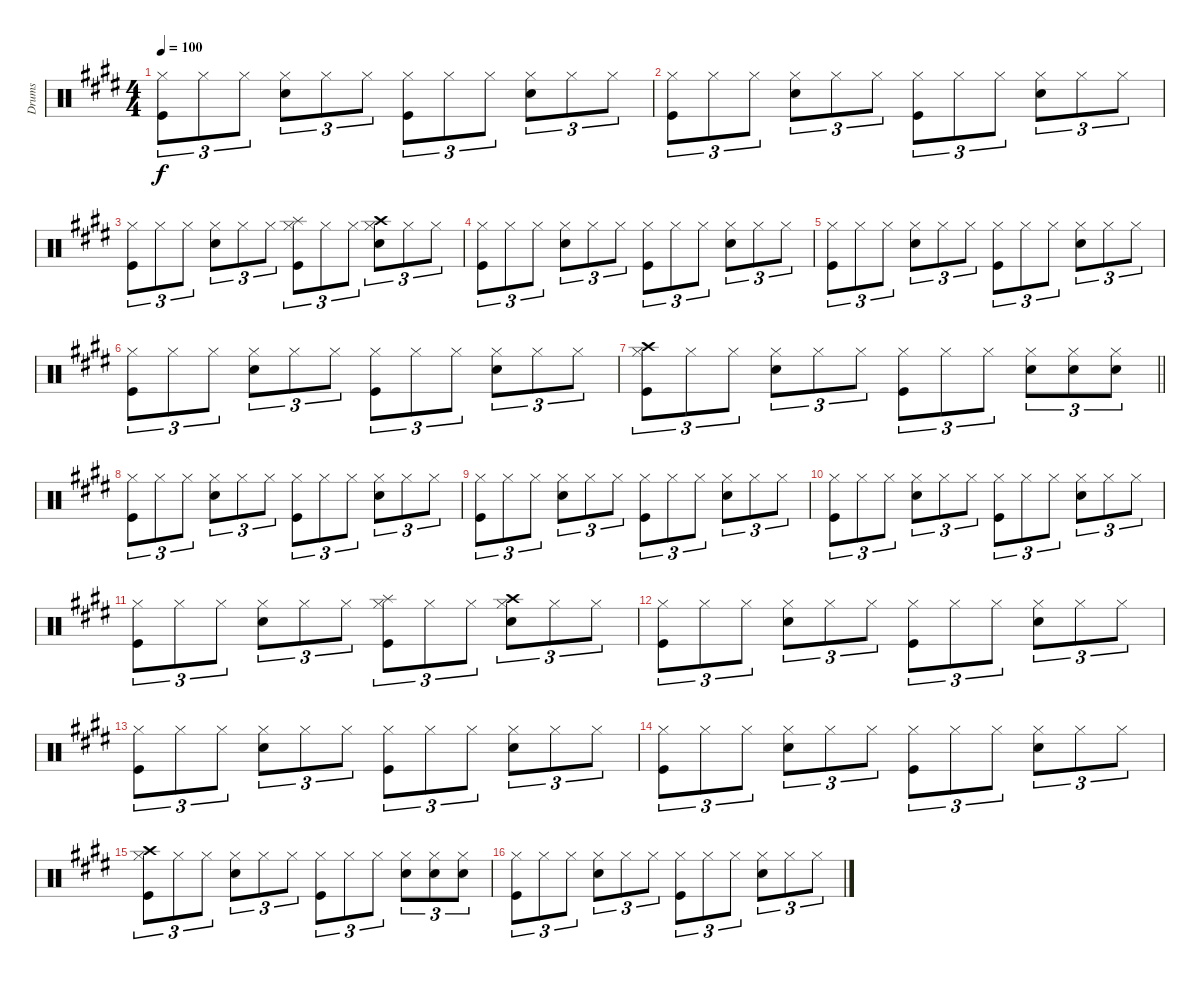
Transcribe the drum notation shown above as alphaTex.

\track ("Drums" "Drums") {instrument percussion}
\staff {score}
\articulation defaults
\ts (4 4)
\tempo 100
\clef neutral
\ks e
("Hi-Hat (closed)" "Kick (hit)").8{tu (3 2) dy f} "Hi-Hat (closed)".8{tu (3 2)} "Hi-Hat (closed)".8{tu (3 2)} ("Hi-Hat (closed)" "Snare (hit) 2").8{tu (3 2)} "Hi-Hat (closed)".8{tu (3 2)} "Hi-Hat (closed)".8{tu (3 2)} ("Hi-Hat (closed)" "Kick (hit)").8{tu (3 2)} "Hi-Hat (closed)".8{tu (3 2)} "Hi-Hat (closed)".8{tu (3 2)} ("Hi-Hat (closed)" "Snare (hit) 2").8{tu (3 2)} "Hi-Hat (closed)".8{tu (3 2)} "Hi-Hat (closed)".8{tu (3 2)} |
\ks c#minor
("Hi-Hat (closed)" "Kick (hit)").8{tu (3 2)} "Hi-Hat (closed)".8{tu (3 2)} "Hi-Hat (closed)".8{tu (3 2)} ("Hi-Hat (closed)" "Snare (hit) 2").8{tu (3 2)} "Hi-Hat (closed)".8{tu (3 2)} "Hi-Hat (closed)".8{tu (3 2)} ("Hi-Hat (closed)" "Kick (hit)").8{tu (3 2)} "Hi-Hat (closed)".8{tu (3 2)} "Hi-Hat (closed)".8{tu (3 2)} ("Hi-Hat (closed)" "Snare (hit) 2").8{tu (3 2)} "Hi-Hat (closed)".8{tu (3 2)} "Hi-Hat (closed)".8{tu (3 2)} |
("Hi-Hat (closed)" "Kick (hit)").8{tu (3 2)} "Hi-Hat (closed)".8{tu (3 2)} "Hi-Hat (closed)".8{tu (3 2)} ("Hi-Hat (closed)" "Snare (hit) 2").8{tu (3 2)} "Hi-Hat (closed)".8{tu (3 2)} "Hi-Hat (closed)".8{tu (3 2)} ("Hi-Hat (closed)" "Splash (hit)" "Kick (hit)").8{tu (3 2)} "Hi-Hat (closed)".8{tu (3 2)} "Hi-Hat (closed)".8{tu (3 2)} ("Hi-Hat (closed)" "Crash high (hit)" "Snare (hit) 2").8{tu (3 2)} "Hi-Hat (closed)".8{tu (3 2)} "Hi-Hat (closed)".8{tu (3 2)} |
("Hi-Hat (closed)" "Kick (hit)").8{tu (3 2)} "Hi-Hat (closed)".8{tu (3 2)} "Hi-Hat (closed)".8{tu (3 2)} ("Hi-Hat (closed)" "Snare (hit) 2").8{tu (3 2)} "Hi-Hat (closed)".8{tu (3 2)} "Hi-Hat (closed)".8{tu (3 2)} ("Hi-Hat (closed)" "Kick (hit)").8{tu (3 2)} "Hi-Hat (closed)".8{tu (3 2)} "Hi-Hat (closed)".8{tu (3 2)} ("Hi-Hat (closed)" "Snare (hit) 2").8{tu (3 2)} "Hi-Hat (closed)".8{tu (3 2)} "Hi-Hat (closed)".8{tu (3 2)} |
\ks e
("Hi-Hat (closed)" "Kick (hit)").8{tu (3 2)} "Hi-Hat (closed)".8{tu (3 2)} "Hi-Hat (closed)".8{tu (3 2)} ("Hi-Hat (closed)" "Snare (hit) 2").8{tu (3 2)} "Hi-Hat (closed)".8{tu (3 2)} "Hi-Hat (closed)".8{tu (3 2)} ("Hi-Hat (closed)" "Kick (hit)").8{tu (3 2)} "Hi-Hat (closed)".8{tu (3 2)} "Hi-Hat (closed)".8{tu (3 2)} ("Hi-Hat (closed)" "Snare (hit) 2").8{tu (3 2)} "Hi-Hat (closed)".8{tu (3 2)} "Hi-Hat (closed)".8{tu (3 2)} |
\ks c#minor
("Hi-Hat (closed)" "Kick (hit)").8{tu (3 2)} "Hi-Hat (closed)".8{tu (3 2)} "Hi-Hat (closed)".8{tu (3 2)} ("Hi-Hat (closed)" "Snare (hit) 2").8{tu (3 2)} "Hi-Hat (closed)".8{tu (3 2)} "Hi-Hat (closed)".8{tu (3 2)} ("Hi-Hat (closed)" "Kick (hit)").8{tu (3 2)} "Hi-Hat (closed)".8{tu (3 2)} "Hi-Hat (closed)".8{tu (3 2)} ("Hi-Hat (closed)" "Snare (hit) 2").8{tu (3 2)} "Hi-Hat (closed)".8{tu (3 2)} "Hi-Hat (closed)".8{tu (3 2)} |
\barLineRight lightlight
("Hi-Hat (closed)" "Crash high (hit)" "Kick (hit)").8{tu (3 2)} "Hi-Hat (closed)".8{tu (3 2)} "Hi-Hat (closed)".8{tu (3 2)} ("Hi-Hat (closed)" "Snare (hit) 2").8{tu (3 2)} "Hi-Hat (closed)".8{tu (3 2)} "Hi-Hat (closed)".8{tu (3 2)} ("Hi-Hat (closed)" "Kick (hit)").8{tu (3 2)} "Hi-Hat (closed)".8{tu (3 2)} "Hi-Hat (closed)".8{tu (3 2)} ("Hi-Hat (closed)" "Snare (hit) 2").8{tu (3 2)} ("Hi-Hat (closed)" "Snare (hit) 2").8{tu (3 2)} ("Hi-Hat (closed)" "Snare (hit) 2").8{tu (3 2)} |
\ks e
("Hi-Hat (closed)" "Kick (hit)").8{tu (3 2)} "Hi-Hat (closed)".8{tu (3 2)} "Hi-Hat (closed)".8{tu (3 2)} ("Hi-Hat (closed)" "Snare (hit) 2").8{tu (3 2)} "Hi-Hat (closed)".8{tu (3 2)} "Hi-Hat (closed)".8{tu (3 2)} ("Hi-Hat (closed)" "Kick (hit)").8{tu (3 2)} "Hi-Hat (closed)".8{tu (3 2)} "Hi-Hat (closed)".8{tu (3 2)} ("Hi-Hat (closed)" "Snare (hit) 2").8{tu (3 2)} "Hi-Hat (closed)".8{tu (3 2)} "Hi-Hat (closed)".8{tu (3 2)} |
\ks c#minor
("Hi-Hat (closed)" "Kick (hit)").8{tu (3 2)} "Hi-Hat (closed)".8{tu (3 2)} "Hi-Hat (closed)".8{tu (3 2)} ("Hi-Hat (closed)" "Snare (hit) 2").8{tu (3 2)} "Hi-Hat (closed)".8{tu (3 2)} "Hi-Hat (closed)".8{tu (3 2)} ("Hi-Hat (closed)" "Kick (hit)").8{tu (3 2)} "Hi-Hat (closed)".8{tu (3 2)} "Hi-Hat (closed)".8{tu (3 2)} ("Hi-Hat (closed)" "Snare (hit) 2").8{tu (3 2)} "Hi-Hat (closed)".8{tu (3 2)} "Hi-Hat (closed)".8{tu (3 2)} |
\ks e
("Hi-Hat (closed)" "Kick (hit)").8{tu (3 2)} "Hi-Hat (closed)".8{tu (3 2)} "Hi-Hat (closed)".8{tu (3 2)} ("Hi-Hat (closed)" "Snare (hit) 2").8{tu (3 2)} "Hi-Hat (closed)".8{tu (3 2)} "Hi-Hat (closed)".8{tu (3 2)} ("Hi-Hat (closed)" "Kick (hit)").8{tu (3 2)} "Hi-Hat (closed)".8{tu (3 2)} "Hi-Hat (closed)".8{tu (3 2)} ("Hi-Hat (closed)" "Snare (hit) 2").8{tu (3 2)} "Hi-Hat (closed)".8{tu (3 2)} "Hi-Hat (closed)".8{tu (3 2)} |
\ks c#minor
("Hi-Hat (closed)" "Kick (hit)").8{tu (3 2)} "Hi-Hat (closed)".8{tu (3 2)} "Hi-Hat (closed)".8{tu (3 2)} ("Hi-Hat (closed)" "Snare (hit) 2").8{tu (3 2)} "Hi-Hat (closed)".8{tu (3 2)} "Hi-Hat (closed)".8{tu (3 2)} ("Hi-Hat (closed)" "Splash (hit)" "Kick (hit)").8{tu (3 2)} "Hi-Hat (closed)".8{tu (3 2)} "Hi-Hat (closed)".8{tu (3 2)} ("Hi-Hat (closed)" "Crash high (hit)" "Snare (hit) 2").8{tu (3 2)} "Hi-Hat (closed)".8{tu (3 2)} "Hi-Hat (closed)".8{tu (3 2)} |
\ks e
("Hi-Hat (closed)" "Kick (hit)").8{tu (3 2)} "Hi-Hat (closed)".8{tu (3 2)} "Hi-Hat (closed)".8{tu (3 2)} ("Hi-Hat (closed)" "Snare (hit) 2").8{tu (3 2)} "Hi-Hat (closed)".8{tu (3 2)} "Hi-Hat (closed)".8{tu (3 2)} ("Hi-Hat (closed)" "Kick (hit)").8{tu (3 2)} "Hi-Hat (closed)".8{tu (3 2)} "Hi-Hat (closed)".8{tu (3 2)} ("Hi-Hat (closed)" "Snare (hit) 2").8{tu (3 2)} "Hi-Hat (closed)".8{tu (3 2)} "Hi-Hat (closed)".8{tu (3 2)} |
\ks c#minor
("Hi-Hat (closed)" "Kick (hit)").8{tu (3 2)} "Hi-Hat (closed)".8{tu (3 2)} "Hi-Hat (closed)".8{tu (3 2)} ("Hi-Hat (closed)" "Snare (hit) 2").8{tu (3 2)} "Hi-Hat (closed)".8{tu (3 2)} "Hi-Hat (closed)".8{tu (3 2)} ("Hi-Hat (closed)" "Kick (hit)").8{tu (3 2)} "Hi-Hat (closed)".8{tu (3 2)} "Hi-Hat (closed)".8{tu (3 2)} ("Hi-Hat (closed)" "Snare (hit) 2").8{tu (3 2)} "Hi-Hat (closed)".8{tu (3 2)} "Hi-Hat (closed)".8{tu (3 2)} |
\ks e
("Hi-Hat (closed)" "Kick (hit)").8{tu (3 2)} "Hi-Hat (closed)".8{tu (3 2)} "Hi-Hat (closed)".8{tu (3 2)} ("Hi-Hat (closed)" "Snare (hit) 2").8{tu (3 2)} "Hi-Hat (closed)".8{tu (3 2)} "Hi-Hat (closed)".8{tu (3 2)} ("Hi-Hat (closed)" "Kick (hit)").8{tu (3 2)} "Hi-Hat (closed)".8{tu (3 2)} "Hi-Hat (closed)".8{tu (3 2)} ("Hi-Hat (closed)" "Snare (hit) 2").8{tu (3 2)} "Hi-Hat (closed)".8{tu (3 2)} "Hi-Hat (closed)".8{tu (3 2)} |
\ks c#minor
("Hi-Hat (closed)" "Crash high (hit)" "Kick (hit)").8{tu (3 2)} "Hi-Hat (closed)".8{tu (3 2)} "Hi-Hat (closed)".8{tu (3 2)} ("Hi-Hat (closed)" "Snare (hit) 2").8{tu (3 2)} "Hi-Hat (closed)".8{tu (3 2)} "Hi-Hat (closed)".8{tu (3 2)} ("Hi-Hat (closed)" "Kick (hit)").8{tu (3 2)} "Hi-Hat (closed)".8{tu (3 2)} "Hi-Hat (closed)".8{tu (3 2)} ("Hi-Hat (closed)" "Snare (hit) 2").8{tu (3 2)} ("Hi-Hat (closed)" "Snare (hit) 2").8{tu (3 2)} ("Hi-Hat (closed)" "Snare (hit) 2").8{tu (3 2)} |
\ks e
("Hi-Hat (closed)" "Kick (hit)").8{tu (3 2)} "Hi-Hat (closed)".8{tu (3 2)} "Hi-Hat (closed)".8{tu (3 2)} ("Hi-Hat (closed)" "Snare (hit) 2").8{tu (3 2)} "Hi-Hat (closed)".8{tu (3 2)} "Hi-Hat (closed)".8{tu (3 2)} ("Hi-Hat (closed)" "Kick (hit)").8{tu (3 2)} "Hi-Hat (closed)".8{tu (3 2)} "Hi-Hat (closed)".8{tu (3 2)} ("Hi-Hat (closed)" "Snare (hit) 2").8{tu (3 2)} "Hi-Hat (closed)".8{tu (3 2)} "Hi-Hat (closed)".8{tu (3 2)}
